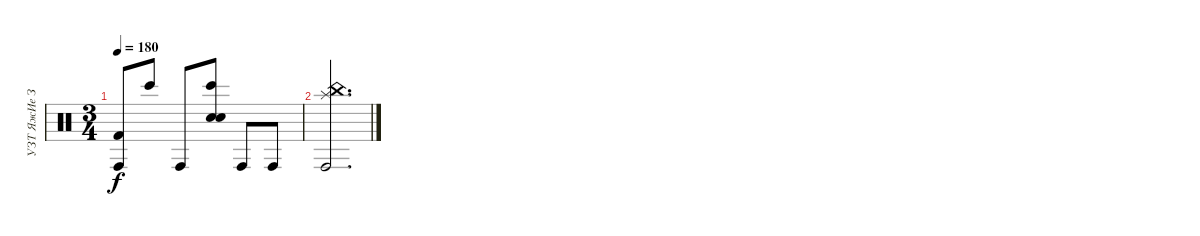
\track ("УЗТ ЯжИе Зн" "УЗТ ЯжИе З") {instrument percussion}
\staff {score}
\articulation defaults
\ts (3 4)
\tempo 180
\clef neutral
\ks c
("Conga high (hit)" "Kick (hit) 2").8{dy f} "Bongo High (hit)".8 "Conga high (hit)".8 ("Bongo High (hit)" "Snare (hit) 2" "Hand Clap (hit)").8 "Conga high (hit)".8 "Conga high (hit)".8 |
("Conga high (hit)" "China (hit)" "Splash (hit)").2{d}
